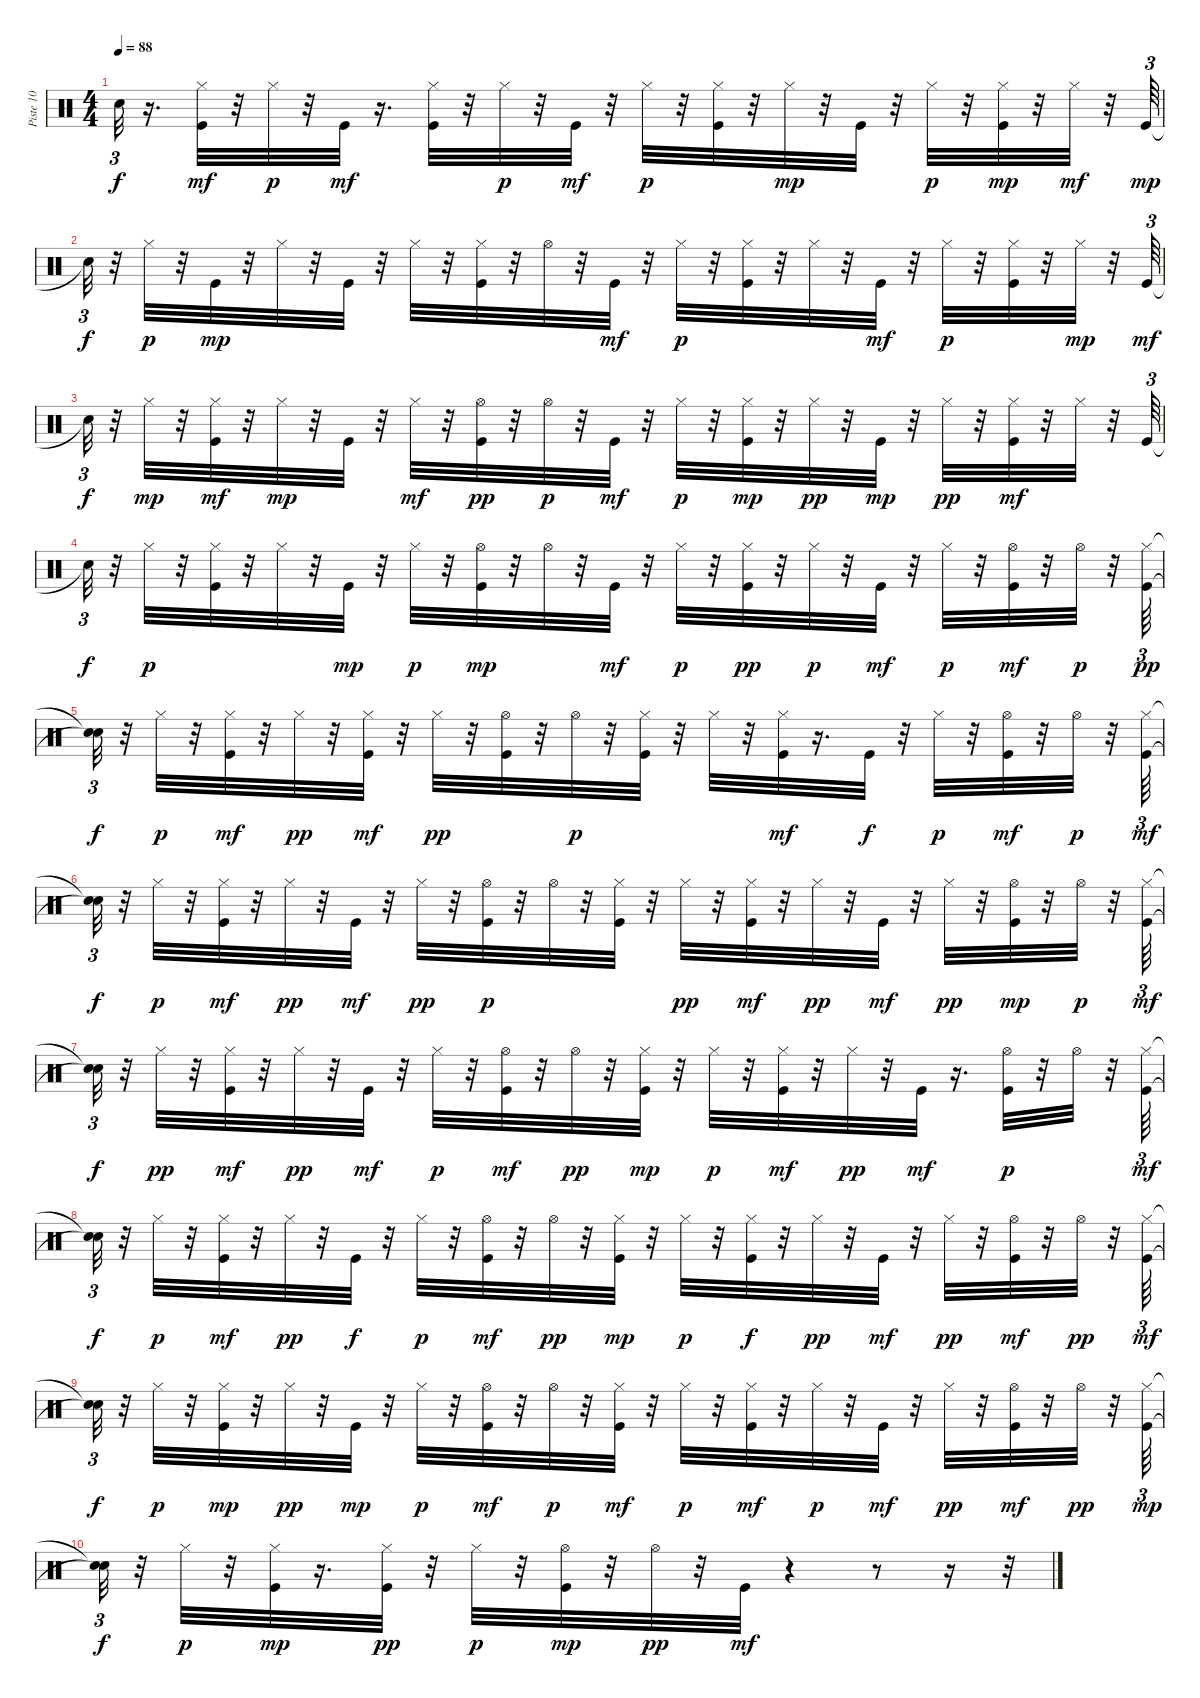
\track ("Piste 10" "Piste 10") {instrument percussion}
\staff {score}
\articulation defaults
\ts (4 4)
\tempo 88
\clef neutral
\ks c "Snare (hit)"{t}.32{tu (3 2) dy f}
r.16{d} ("Hi-Hat (closed)" "Kick (hit)").32{dy mf} r.32 "Hi-Hat (closed)".32{dy p} r.32 "Kick (hit)".32{dy mf} r.16{d} ("Hi-Hat (closed)" "Kick (hit)").32 r.32 "Hi-Hat (closed)".32{dy p} r.32 "Kick (hit)".32{dy mf} r.32 "Hi-Hat (closed)".32{dy p} r.32 ("Kick (hit)" "Hi-Hat (closed)").32 r.32 "Hi-Hat (closed)".32{dy mp} r.32 "Kick (hit)".32 r.32 "Hi-Hat (closed)".32{dy p} r.32 ("Hi-Hat (closed)" "Kick (hit)").32{dy mp} r.32 "Hi-Hat (closed)".32{dy mf} r.32 "Kick (hit)".64{tu (3 2) dy mp} |
"Snare (hit)"{t}.32{tu (3 2) dy f} r.32 "Hi-Hat (closed)".32{dy p} r.32 "Kick (hit)".32{dy mp} r.32 "Hi-Hat (closed)".32 r.32 "Kick (hit)".32 r.32 "Hi-Hat (closed)".32 r.32 ("Hi-Hat (closed)" "Kick (hit)").32 r.32 "Hi-Hat (open)".32 r.32 "Kick (hit)".32{dy mf} r.32 "Hi-Hat (closed)".32{dy p} r.32 ("Kick (hit)" "Hi-Hat (closed)").32 r.32 "Hi-Hat (closed)".32 r.32 "Kick (hit)".32{dy mf} r.32 "Hi-Hat (closed)".32{dy p} r.32 ("Kick (hit)" "Hi-Hat (closed)").32 r.32 "Hi-Hat (closed)".32{dy mp} r.32 "Kick (hit)".64{tu (3 2) dy mf} |
"Snare (hit)"{t}.32{tu (3 2) dy f} r.32 "Hi-Hat (closed)".32{dy mp} r.32 ("Hi-Hat (closed)" "Kick (hit)").32{dy mf} r.32 "Hi-Hat (closed)".32{dy mp} r.32 "Kick (hit)".32 r.32 "Hi-Hat (closed)".32{dy mf} r.32 ("Kick (hit)" "Hi-Hat (open)").32{dy pp} r.32 "Hi-Hat (open)".32{dy p} r.32 "Kick (hit)".32{dy mf} r.32 "Hi-Hat (closed)".32{dy p} r.32 ("Hi-Hat (closed)" "Kick (hit)").32{dy mp} r.32 "Hi-Hat (closed)".32{dy pp} r.32 "Kick (hit)".32{dy mp} r.32 "Hi-Hat (closed)".32{dy pp} r.32 ("Hi-Hat (closed)" "Kick (hit)").32{dy mf} r.32 "Hi-Hat (closed)".32 r.32 "Kick (hit)".64{tu (3 2)} |
"Snare (hit)"{t}.32{tu (3 2) dy f} r.32 "Hi-Hat (closed)".32{dy p} r.32 ("Kick (hit)" "Hi-Hat (closed)").32 r.32 "Hi-Hat (closed)".32 r.32 "Kick (hit)".32{dy mp} r.32 "Hi-Hat (closed)".32{dy p} r.32 ("Hi-Hat (open)" "Kick (hit)").32{dy mp} r.32 "Hi-Hat (open)".32 r.32 "Kick (hit)".32{dy mf} r.32 "Hi-Hat (closed)".32{dy p} r.32 ("Kick (hit)" "Hi-Hat (closed)").32{dy pp} r.32 "Hi-Hat (closed)".32{dy p} r.32 "Kick (hit)".32{dy mf} r.32 "Hi-Hat (closed)".32{dy p} r.32 ("Hi-Hat (open)" "Kick (hit)").32{dy mf} r.32 "Hi-Hat (open)".32{dy p} r.32 ("Kick (hit)" "Hi-Hat (closed)").64{tu (3 2) dy pp} |
("Snare (hit)"{t} "Snare (hit)"{t}).32{tu (3 2) dy f} r.32 "Hi-Hat (closed)".32{dy p} r.32 ("Hi-Hat (closed)" "Kick (hit)").32{dy mf} r.32 "Hi-Hat (closed)".32{dy pp} r.32 ("Hi-Hat (closed)" "Kick (hit)").32{dy mf} r.32 "Hi-Hat (closed)".32{dy pp} r.32 ("Hi-Hat (open)" "Kick (hit)").32 r.32 "Hi-Hat (open)".32{dy p} r.32 ("Hi-Hat (closed)" "Kick (hit)").32 r.32 "Hi-Hat (closed)".32 r.32 ("Hi-Hat (closed)" "Kick (hit)").32{dy mf} r.16{d} "Kick (hit)".32{dy f} r.32 "Hi-Hat (closed)".32{dy p} r.32 ("Hi-Hat (open)" "Kick (hit)").32{dy mf} r.32 "Hi-Hat (open)".32{dy p} r.32 ("Hi-Hat (closed)" "Kick (hit)").64{tu (3 2) dy mf} |
("Snare (hit)"{t} "Snare (hit)"{t}).32{tu (3 2) dy f} r.32 "Hi-Hat (closed)".32{dy p} r.32 ("Kick (hit)" "Hi-Hat (closed)").32{dy mf} r.32 "Hi-Hat (closed)".32{dy pp} r.32 "Kick (hit)".32{dy mf} r.32 "Hi-Hat (closed)".32{dy pp} r.32 ("Hi-Hat (open)" "Kick (hit)").32{dy p} r.32 "Hi-Hat (open)".32 r.32 ("Hi-Hat (closed)" "Kick (hit)").32 r.32 "Hi-Hat (closed)".32{dy pp} r.32 ("Hi-Hat (closed)" "Kick (hit)").32{dy mf} r.32 "Hi-Hat (closed)".32{dy pp} r.32 "Kick (hit)".32{dy mf} r.32 "Hi-Hat (closed)".32{dy pp} r.32 ("Hi-Hat (open)" "Kick (hit)").32{dy mp} r.32 "Hi-Hat (open)".32{dy p} r.32 ("Hi-Hat (closed)" "Kick (hit)").64{tu (3 2) dy mf} |
("Snare (hit)"{t} "Snare (hit)"{t}).32{tu (3 2) dy f} r.32 "Hi-Hat (closed)".32{dy pp} r.32 ("Hi-Hat (closed)" "Kick (hit)").32{dy mf} r.32 "Hi-Hat (closed)".32{dy pp} r.32 "Kick (hit)".32{dy mf} r.32 "Hi-Hat (closed)".32{dy p} r.32 ("Hi-Hat (open)" "Kick (hit)").32{dy mf} r.32 "Hi-Hat (open)".32{dy pp} r.32 ("Hi-Hat (closed)" "Kick (hit)").32{dy mp} r.32 "Hi-Hat (closed)".32{dy p} r.32 ("Kick (hit)" "Hi-Hat (closed)").32{dy mf} r.32 "Hi-Hat (closed)".32{dy pp} r.32 "Kick (hit)".32{dy mf} r.16{d} ("Hi-Hat (open)" "Kick (hit)").32{dy p} r.32 "Hi-Hat (open)".32 r.32 ("Hi-Hat (closed)" "Kick (hit)").64{tu (3 2) dy mf} |
("Snare (hit)"{t} "Snare (hit)"{t}).32{tu (3 2) dy f} r.32 "Hi-Hat (closed)".32{dy p} r.32 ("Hi-Hat (closed)" "Kick (hit)").32{dy mf} r.32 "Hi-Hat (closed)".32{dy pp} r.32 "Kick (hit)".32{dy f} r.32 "Hi-Hat (closed)".32{dy p} r.32 ("Hi-Hat (open)" "Kick (hit)").32{dy mf} r.32 "Hi-Hat (open)".32{dy pp} r.32 ("Hi-Hat (closed)" "Kick (hit)").32{dy mp} r.32 "Hi-Hat (closed)".32{dy p} r.32 ("Hi-Hat (closed)" "Kick (hit)").32{dy f} r.32 "Hi-Hat (closed)".32{dy pp} r.32 "Kick (hit)".32{dy mf} r.32 "Hi-Hat (closed)".32{dy pp} r.32 ("Hi-Hat (open)" "Kick (hit)").32{dy mf} r.32 "Hi-Hat (open)".32{dy pp} r.32 ("Hi-Hat (closed)" "Kick (hit)").64{tu (3 2) dy mf} |
("Snare (hit)"{t} "Snare (hit)"{t}).32{tu (3 2) dy f} r.32 "Hi-Hat (closed)".32{dy p} r.32 ("Hi-Hat (closed)" "Kick (hit)").32{dy mp} r.32 "Hi-Hat (closed)".32{dy pp} r.32 "Kick (hit)".32{dy mp} r.32 "Hi-Hat (closed)".32{dy p} r.32 ("Hi-Hat (open)" "Kick (hit)").32{dy mf} r.32 "Hi-Hat (open)".32{dy p} r.32 ("Hi-Hat (closed)" "Kick (hit)").32{dy mf} r.32 "Hi-Hat (closed)".32{dy p} r.32 ("Hi-Hat (closed)" "Kick (hit)").32{dy mf} r.32 "Hi-Hat (closed)".32{dy p} r.32 "Kick (hit)".32{dy mf} r.32 "Hi-Hat (closed)".32{dy pp} r.32 ("Hi-Hat (open)" "Kick (hit)").32{dy mf} r.32 "Hi-Hat (open)".32{dy pp} r.32 ("Hi-Hat (closed)" "Kick (hit)").64{tu (3 2) dy mp} |
("Snare (hit)"{t} "Snare (hit)"{t}).32{tu (3 2) dy f} r.32 "Hi-Hat (closed)".32{dy p} r.32 ("Hi-Hat (closed)" "Kick (hit)").32{dy mp} r.16{d} ("Kick (hit)" "Hi-Hat (closed)").32{dy pp} r.32 "Hi-Hat (closed)".32{dy p} r.32 ("Hi-Hat (open)" "Kick (hit)").32{dy mp} r.32 "Hi-Hat (open)".32{dy pp} r.32 "Kick (hit)".32{dy mf} r.4 r.8 r.16 r.32
